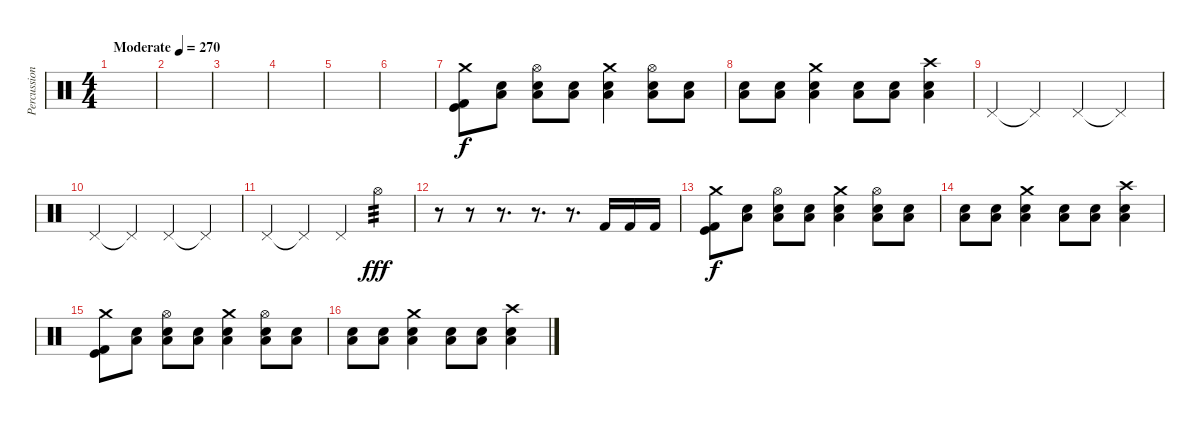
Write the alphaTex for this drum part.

\track ("Percussion" "Percussion") {instrument percussion}
\staff {score}
\articulation defaults
\ts (4 4)
\tempo (270 "Moderate")
\clef neutral
\ks c
|
|
|
|
|
|
("Crash medium (hit)" "Kick (hit)" "Kick (hit) 2").8 ("Electric Snare (hit)" "Low Floor Tom (hit)").8 ("Hi-Hat (open)" "Electric Snare (hit)" "Low Floor Tom (hit)").8 ("Electric Snare (hit)" "Low Floor Tom (hit)").8 ("Crash medium (hit)" "Electric Snare (hit)" "Low Floor Tom (hit)").4 ("Hi-Hat (open)" "Electric Snare (hit)" "Low Floor Tom (hit)").8 ("Electric Snare (hit)" "Low Floor Tom (hit)").8 |
("Electric Snare (hit)" "Low Floor Tom (hit)").8 ("Electric Snare (hit)" "Low Floor Tom (hit)").8 ("Crash medium (hit)" "Electric Snare (hit)" "Low Floor Tom (hit)").4 ("Electric Snare (hit)" "Low Floor Tom (hit)").8 ("Electric Snare (hit)" "Low Floor Tom (hit)").8 ("Crash high (hit)" "Electric Snare (hit)" "Low Floor Tom (hit)").4 |
"Pedal Hi-Hat (hit)".4 "Pedal Hi-Hat (hit)"{t}.4 "Pedal Hi-Hat (hit)".4 "Pedal Hi-Hat (hit)"{t}.4 |
"Pedal Hi-Hat (hit)".4 "Pedal Hi-Hat (hit)"{t}.4 "Pedal Hi-Hat (hit)".4 "Pedal Hi-Hat (hit)"{t}.4 |
"Pedal Hi-Hat (hit)".4 "Pedal Hi-Hat (hit)"{t}.4 "Pedal Hi-Hat (hit)".4 "Hi-Hat (open)".4{tp 3 dy fff} |
r.8 r.8 r.8{d} r.8{d} r.8{d} "Kick (hit) 2".16 "Kick (hit) 2".16 "Kick (hit) 2".16 |
("Crash medium (hit)" "Kick (hit)" "Kick (hit) 2").8{dy f} ("Electric Snare (hit)" "Low Floor Tom (hit)").8 ("Hi-Hat (open)" "Electric Snare (hit)" "Low Floor Tom (hit)").8 ("Electric Snare (hit)" "Low Floor Tom (hit)").8 ("Crash medium (hit)" "Electric Snare (hit)" "Low Floor Tom (hit)").4 ("Hi-Hat (open)" "Electric Snare (hit)" "Low Floor Tom (hit)").8 ("Electric Snare (hit)" "Low Floor Tom (hit)").8 |
("Electric Snare (hit)" "Low Floor Tom (hit)").8 ("Electric Snare (hit)" "Low Floor Tom (hit)").8 ("Crash medium (hit)" "Electric Snare (hit)" "Low Floor Tom (hit)").4 ("Electric Snare (hit)" "Low Floor Tom (hit)").8 ("Electric Snare (hit)" "Low Floor Tom (hit)").8 ("Crash high (hit)" "Electric Snare (hit)" "Low Floor Tom (hit)").4 |
("Crash medium (hit)" "Kick (hit)" "Kick (hit) 2").8 ("Electric Snare (hit)" "Low Floor Tom (hit)").8 ("Hi-Hat (open)" "Electric Snare (hit)" "Low Floor Tom (hit)").8 ("Electric Snare (hit)" "Low Floor Tom (hit)").8 ("Crash medium (hit)" "Electric Snare (hit)" "Low Floor Tom (hit)").4 ("Hi-Hat (open)" "Electric Snare (hit)" "Low Floor Tom (hit)").8 ("Electric Snare (hit)" "Low Floor Tom (hit)").8 |
("Electric Snare (hit)" "Low Floor Tom (hit)").8 ("Electric Snare (hit)" "Low Floor Tom (hit)").8 ("Crash medium (hit)" "Electric Snare (hit)" "Low Floor Tom (hit)").4 ("Electric Snare (hit)" "Low Floor Tom (hit)").8 ("Electric Snare (hit)" "Low Floor Tom (hit)").8 ("Crash high (hit)" "Electric Snare (hit)" "Low Floor Tom (hit)").4
